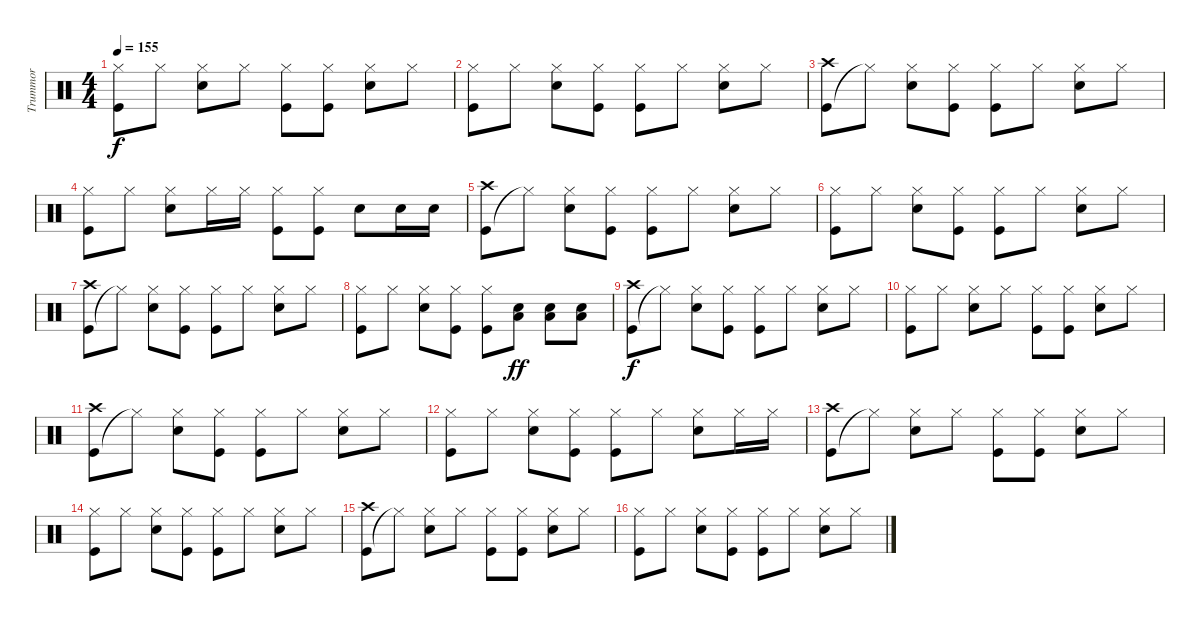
\track ("Trummor" "Trummor") {instrument percussion}
\staff {score}
\articulation defaults
\ts (4 4)
\tempo 155
\clef neutral
\ks c
("Kick (hit)" "Hi-Hat (closed)").8{dy f} "Hi-Hat (closed)".8 ("Snare (hit) 2" "Hi-Hat (closed)").8 "Hi-Hat (closed)".8 ("Kick (hit)" "Hi-Hat (closed)").8 ("Kick (hit)" "Hi-Hat (closed)").8 ("Snare (hit) 2" "Hi-Hat (closed)").8 "Hi-Hat (closed)".8 |
("Kick (hit)" "Hi-Hat (closed)").8 "Hi-Hat (closed)".8 ("Snare (hit) 2" "Hi-Hat (closed)").8 ("Kick (hit)" "Hi-Hat (closed)").8 ("Kick (hit)" "Hi-Hat (closed)").8 "Hi-Hat (closed)".8 ("Snare (hit) 2" "Hi-Hat (closed)").8 "Hi-Hat (closed)".8 |
("Kick (hit)" "Crash high (hit)").8 "Hi-Hat (closed)"{t}.8 ("Snare (hit) 2" "Hi-Hat (closed)").8 ("Kick (hit)" "Hi-Hat (closed)").8 ("Kick (hit)" "Hi-Hat (closed)").8 "Hi-Hat (closed)".8 ("Snare (hit) 2" "Hi-Hat (closed)").8 "Hi-Hat (closed)".8 |
("Kick (hit)" "Hi-Hat (closed)").8 "Hi-Hat (closed)".8 ("Snare (hit) 2" "Hi-Hat (closed)").8 "Hi-Hat (closed)".16 "Hi-Hat (closed)".16 ("Kick (hit)" "Hi-Hat (closed)").8 ("Kick (hit)" "Hi-Hat (closed)").8 "Snare (hit) 2".8 "Snare (hit) 2".16 "Snare (hit) 2".16 |
("Kick (hit)" "Crash high (hit)").8 "Hi-Hat (closed)"{t}.8 ("Snare (hit) 2" "Hi-Hat (closed)").8 ("Kick (hit)" "Hi-Hat (closed)").8 ("Kick (hit)" "Hi-Hat (closed)").8 "Hi-Hat (closed)".8 ("Snare (hit) 2" "Hi-Hat (closed)").8 "Hi-Hat (closed)".8 |
("Kick (hit)" "Hi-Hat (closed)").8 "Hi-Hat (closed)".8 ("Snare (hit) 2" "Hi-Hat (closed)").8 ("Kick (hit)" "Hi-Hat (closed)").8 ("Kick (hit)" "Hi-Hat (closed)").8 "Hi-Hat (closed)".8 ("Snare (hit) 2" "Hi-Hat (closed)").8 "Hi-Hat (closed)".8 |
("Kick (hit)" "Crash high (hit)").8 "Hi-Hat (closed)"{t}.8 ("Snare (hit) 2" "Hi-Hat (closed)").8 ("Kick (hit)" "Hi-Hat (closed)").8 ("Kick (hit)" "Hi-Hat (closed)").8 "Hi-Hat (closed)".8 ("Snare (hit) 2" "Hi-Hat (closed)").8 "Hi-Hat (closed)".8 |
("Kick (hit)" "Hi-Hat (closed)").8 "Hi-Hat (closed)".8 ("Snare (hit) 2" "Hi-Hat (closed)").8 ("Kick (hit)" "Hi-Hat (closed)").8 ("Kick (hit)" "Hi-Hat (closed)").8 ("Snare (hit) 2" "Low Floor Tom (hit)").8{dy ff} ("Snare (hit) 2" "Low Floor Tom (hit)").8 ("Snare (hit) 2" "Low Floor Tom (hit)").8 |
("Kick (hit)" "Crash high (hit)").8{dy f} "Hi-Hat (closed)"{t}.8 ("Snare (hit) 2" "Hi-Hat (closed)").8 ("Kick (hit)" "Hi-Hat (closed)").8 ("Kick (hit)" "Hi-Hat (closed)").8 "Hi-Hat (closed)".8 ("Snare (hit) 2" "Hi-Hat (closed)").8 "Hi-Hat (closed)".8 |
("Kick (hit)" "Hi-Hat (closed)").8 "Hi-Hat (closed)".8 ("Snare (hit) 2" "Hi-Hat (closed)").8 "Hi-Hat (closed)".8 ("Kick (hit)" "Hi-Hat (closed)").8 ("Kick (hit)" "Hi-Hat (closed)").8 ("Snare (hit) 2" "Hi-Hat (closed)").8 "Hi-Hat (closed)".8 |
("Kick (hit)" "Crash high (hit)").8 "Hi-Hat (closed)"{t}.8 ("Snare (hit) 2" "Hi-Hat (closed)").8 ("Kick (hit)" "Hi-Hat (closed)").8 ("Kick (hit)" "Hi-Hat (closed)").8 "Hi-Hat (closed)".8 ("Snare (hit) 2" "Hi-Hat (closed)").8 "Hi-Hat (closed)".8 |
("Kick (hit)" "Hi-Hat (closed)").8 "Hi-Hat (closed)".8 ("Snare (hit) 2" "Hi-Hat (closed)").8 ("Kick (hit)" "Hi-Hat (closed)").8 ("Kick (hit)" "Hi-Hat (closed)").8 "Hi-Hat (closed)".8 ("Snare (hit) 2" "Hi-Hat (closed)").8 "Hi-Hat (closed)".16 "Hi-Hat (closed)".16 |
("Kick (hit)" "Crash high (hit)").8 "Hi-Hat (closed)"{t}.8 ("Snare (hit) 2" "Hi-Hat (closed)").8 "Hi-Hat (closed)".8 ("Kick (hit)" "Hi-Hat (closed)").8 ("Kick (hit)" "Hi-Hat (closed)").8 ("Snare (hit) 2" "Hi-Hat (closed)").8 "Hi-Hat (closed)".8 |
("Kick (hit)" "Hi-Hat (closed)").8 "Hi-Hat (closed)".8 ("Snare (hit) 2" "Hi-Hat (closed)").8 ("Kick (hit)" "Hi-Hat (closed)").8 ("Kick (hit)" "Hi-Hat (closed)").8 "Hi-Hat (closed)".8 ("Snare (hit) 2" "Hi-Hat (closed)").8 "Hi-Hat (closed)".8 |
("Kick (hit)" "Crash high (hit)").8 "Hi-Hat (closed)"{t}.8 ("Snare (hit) 2" "Hi-Hat (closed)").8 "Hi-Hat (closed)".8 ("Kick (hit)" "Hi-Hat (closed)").8 ("Kick (hit)" "Hi-Hat (closed)").8 ("Snare (hit) 2" "Hi-Hat (closed)").8 "Hi-Hat (closed)".8 |
("Kick (hit)" "Hi-Hat (closed)").8 "Hi-Hat (closed)".8 ("Snare (hit) 2" "Hi-Hat (closed)").8 ("Kick (hit)" "Hi-Hat (closed)").8 ("Kick (hit)" "Hi-Hat (closed)").8 "Hi-Hat (closed)".8 ("Snare (hit) 2" "Hi-Hat (closed)").8 "Hi-Hat (closed)".8
